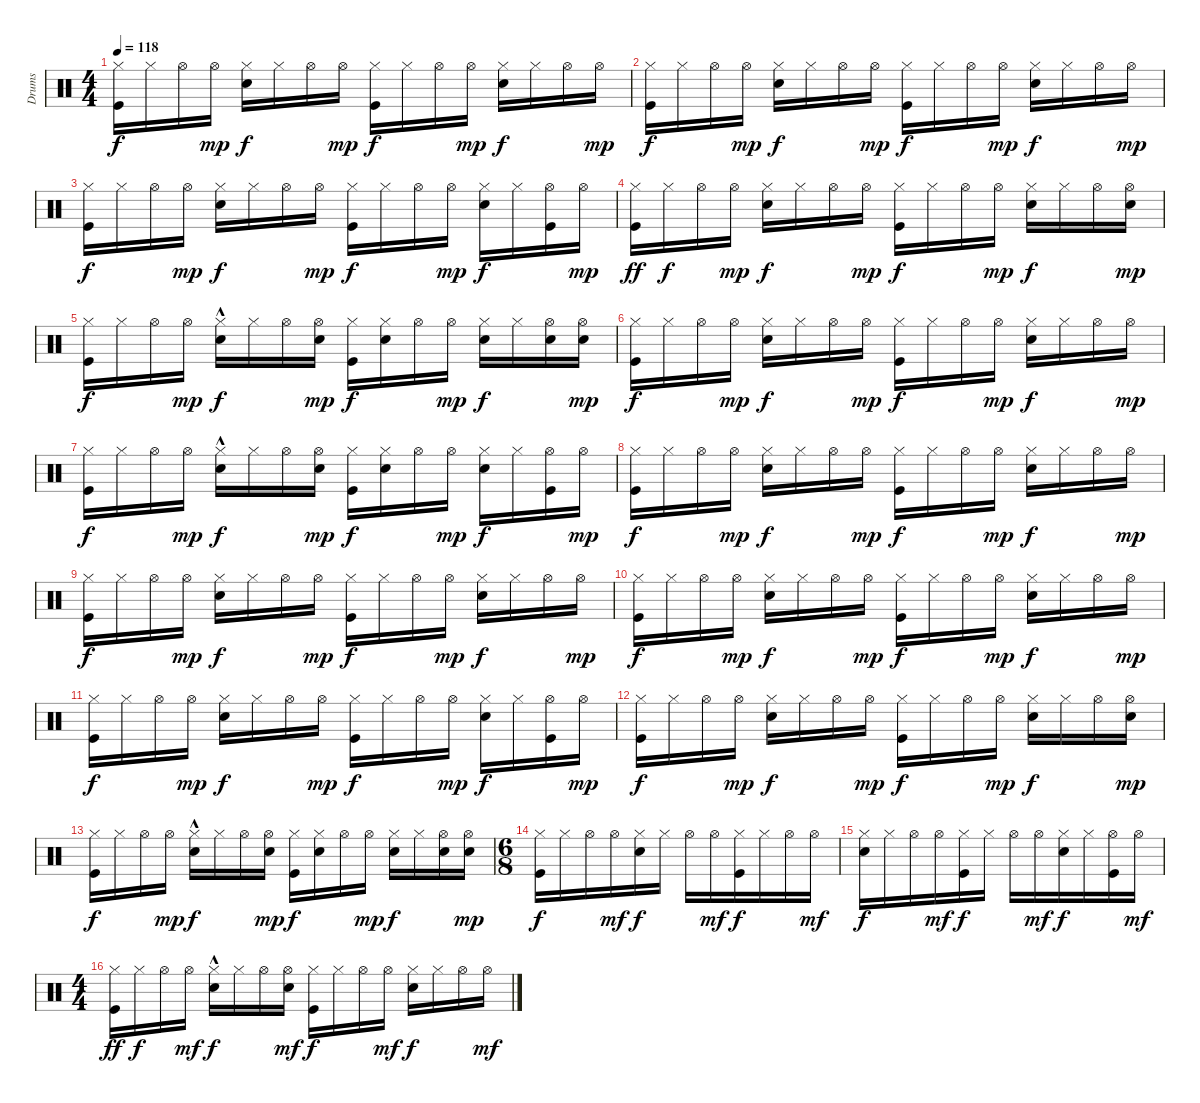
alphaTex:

\track ("Drums" "Drums") {instrument percussion}
\staff {score}
\articulation defaults
\ts (4 4)
\tempo 118
\clef neutral
\ks c
("Hi-Hat (closed)" "Kick (hit)").16{dy f} "Hi-Hat (closed)".16 "Hi-Hat (open)".16 "Hi-Hat (open)".16{dy mp} ("Hi-Hat (closed)" "Electric Snare (hit)").16{dy f} "Hi-Hat (closed)".16 "Hi-Hat (open)".16 "Hi-Hat (open)".16{dy mp} ("Kick (hit)" "Hi-Hat (closed)").16{dy f} "Hi-Hat (closed)".16 "Hi-Hat (open)".16 "Hi-Hat (open)".16{dy mp} ("Hi-Hat (closed)" "Electric Snare (hit)").16{dy f} "Hi-Hat (closed)".16 "Hi-Hat (open)".16 "Hi-Hat (open)".16{dy mp} |
("Hi-Hat (closed)" "Kick (hit)").16{dy f} "Hi-Hat (closed)".16 "Hi-Hat (open)".16 "Hi-Hat (open)".16{dy mp} ("Hi-Hat (closed)" "Electric Snare (hit)").16{dy f} "Hi-Hat (closed)".16 "Hi-Hat (open)".16 "Hi-Hat (open)".16{dy mp} ("Kick (hit)" "Hi-Hat (closed)").16{dy f} "Hi-Hat (closed)".16 "Hi-Hat (open)".16 "Hi-Hat (open)".16{dy mp} ("Hi-Hat (closed)" "Electric Snare (hit)").16{dy f} "Hi-Hat (closed)".16 "Hi-Hat (open)".16 "Hi-Hat (open)".16{dy mp} |
("Hi-Hat (closed)" "Kick (hit)").16{dy f} "Hi-Hat (closed)".16 "Hi-Hat (open)".16 "Hi-Hat (open)".16{dy mp} ("Electric Snare (hit)" "Hi-Hat (closed)").16{dy f} "Hi-Hat (closed)".16 "Hi-Hat (open)".16 "Hi-Hat (open)".16{dy mp} ("Kick (hit)" "Hi-Hat (closed)").16{dy f} "Hi-Hat (closed)".16 "Hi-Hat (open)".16 "Hi-Hat (open)".16{dy mp} ("Hi-Hat (closed)" "Electric Snare (hit)").16{dy f} "Hi-Hat (closed)".16 ("Kick (hit)" "Hi-Hat (open)").16 "Hi-Hat (open)".16{dy mp} |
("Hi-Hat (closed)" "Kick (hit)").16{dy ff} "Hi-Hat (closed)".16{dy f} "Hi-Hat (open)".16 "Hi-Hat (open)".16{dy mp} ("Hi-Hat (closed)" "Electric Snare (hit)").16{dy f} "Hi-Hat (closed)".16 "Hi-Hat (open)".16 "Hi-Hat (open)".16{dy mp} ("Kick (hit)" "Hi-Hat (closed)").16{dy f} "Hi-Hat (closed)".16 "Hi-Hat (open)".16 "Hi-Hat (open)".16{dy mp} ("Hi-Hat (closed)" "Electric Snare (hit)").16{dy f} "Hi-Hat (closed)".16 "Hi-Hat (open)".16 ("Electric Snare (hit)" "Hi-Hat (open)").16{dy mp} |
("Hi-Hat (closed)" "Kick (hit)").16{dy f} "Hi-Hat (closed)".16 "Hi-Hat (open)".16 "Hi-Hat (open)".16{dy mp} ("Hi-Hat (closed)" "Electric Snare (hit)"{hac}).16{dy f} "Hi-Hat (closed)".16 "Hi-Hat (open)".16 ("Electric Snare (hit)" "Hi-Hat (open)").16{dy mp} ("Kick (hit)" "Hi-Hat (closed)").16{dy f} ("Electric Snare (hit)" "Hi-Hat (closed)").16 "Hi-Hat (open)".16 "Hi-Hat (open)".16{dy mp} ("Hi-Hat (closed)" "Electric Snare (hit)").16{dy f} "Hi-Hat (closed)".16 ("Electric Snare (hit)" "Hi-Hat (open)").16 ("Electric Snare (hit)" "Hi-Hat (open)").16{dy mp} |
("Hi-Hat (closed)" "Kick (hit)").16{dy f} "Hi-Hat (closed)".16 "Hi-Hat (open)".16 "Hi-Hat (open)".16{dy mp} ("Hi-Hat (closed)" "Electric Snare (hit)").16{dy f} "Hi-Hat (closed)".16 "Hi-Hat (open)".16 "Hi-Hat (open)".16{dy mp} ("Kick (hit)" "Hi-Hat (closed)").16{dy f} "Hi-Hat (closed)".16 "Hi-Hat (open)".16 "Hi-Hat (open)".16{dy mp} ("Hi-Hat (closed)" "Electric Snare (hit)").16{dy f} "Hi-Hat (closed)".16 "Hi-Hat (open)".16 "Hi-Hat (open)".16{dy mp} |
("Hi-Hat (closed)" "Kick (hit)").16{dy f} "Hi-Hat (closed)".16 "Hi-Hat (open)".16 "Hi-Hat (open)".16{dy mp} ("Hi-Hat (closed)" "Electric Snare (hit)"{hac}).16{dy f} "Hi-Hat (closed)".16 "Hi-Hat (open)".16 ("Electric Snare (hit)" "Hi-Hat (open)").16{dy mp} ("Kick (hit)" "Hi-Hat (closed)").16{dy f} ("Electric Snare (hit)" "Hi-Hat (closed)").16 "Hi-Hat (open)".16 "Hi-Hat (open)".16{dy mp} ("Hi-Hat (closed)" "Electric Snare (hit)").16{dy f} "Hi-Hat (closed)".16 ("Kick (hit)" "Hi-Hat (open)").16 "Hi-Hat (open)".16{dy mp} |
("Hi-Hat (closed)" "Kick (hit)").16{dy f} "Hi-Hat (closed)".16 "Hi-Hat (open)".16 "Hi-Hat (open)".16{dy mp} ("Hi-Hat (closed)" "Electric Snare (hit)").16{dy f} "Hi-Hat (closed)".16 "Hi-Hat (open)".16 "Hi-Hat (open)".16{dy mp} ("Kick (hit)" "Hi-Hat (closed)").16{dy f} "Hi-Hat (closed)".16 "Hi-Hat (open)".16 "Hi-Hat (open)".16{dy mp} ("Hi-Hat (closed)" "Electric Snare (hit)").16{dy f} "Hi-Hat (closed)".16 "Hi-Hat (open)".16 "Hi-Hat (open)".16{dy mp} |
("Hi-Hat (closed)" "Kick (hit)").16{dy f} "Hi-Hat (closed)".16 "Hi-Hat (open)".16 "Hi-Hat (open)".16{dy mp} ("Hi-Hat (closed)" "Electric Snare (hit)").16{dy f} "Hi-Hat (closed)".16 "Hi-Hat (open)".16 "Hi-Hat (open)".16{dy mp} ("Kick (hit)" "Hi-Hat (closed)").16{dy f} "Hi-Hat (closed)".16 "Hi-Hat (open)".16 "Hi-Hat (open)".16{dy mp} ("Hi-Hat (closed)" "Electric Snare (hit)").16{dy f} "Hi-Hat (closed)".16 "Hi-Hat (open)".16 "Hi-Hat (open)".16{dy mp} |
("Hi-Hat (closed)" "Kick (hit)").16{dy f} "Hi-Hat (closed)".16 "Hi-Hat (open)".16 "Hi-Hat (open)".16{dy mp} ("Hi-Hat (closed)" "Electric Snare (hit)").16{dy f} "Hi-Hat (closed)".16 "Hi-Hat (open)".16 "Hi-Hat (open)".16{dy mp} ("Kick (hit)" "Hi-Hat (closed)").16{dy f} "Hi-Hat (closed)".16 "Hi-Hat (open)".16 "Hi-Hat (open)".16{dy mp} ("Hi-Hat (closed)" "Electric Snare (hit)").16{dy f} "Hi-Hat (closed)".16 "Hi-Hat (open)".16 "Hi-Hat (open)".16{dy mp} |
("Hi-Hat (closed)" "Kick (hit)").16{dy f} "Hi-Hat (closed)".16 "Hi-Hat (open)".16 "Hi-Hat (open)".16{dy mp} ("Electric Snare (hit)" "Hi-Hat (closed)").16{dy f} "Hi-Hat (closed)".16 "Hi-Hat (open)".16 "Hi-Hat (open)".16{dy mp} ("Kick (hit)" "Hi-Hat (closed)").16{dy f} "Hi-Hat (closed)".16 "Hi-Hat (open)".16 "Hi-Hat (open)".16{dy mp} ("Hi-Hat (closed)" "Electric Snare (hit)").16{dy f} "Hi-Hat (closed)".16 ("Kick (hit)" "Hi-Hat (open)").16 "Hi-Hat (open)".16{dy mp} |
("Hi-Hat (closed)" "Kick (hit)").16{dy f} "Hi-Hat (closed)".16 "Hi-Hat (open)".16 "Hi-Hat (open)".16{dy mp} ("Hi-Hat (closed)" "Electric Snare (hit)").16{dy f} "Hi-Hat (closed)".16 "Hi-Hat (open)".16 "Hi-Hat (open)".16{dy mp} ("Kick (hit)" "Hi-Hat (closed)").16{dy f} "Hi-Hat (closed)".16 "Hi-Hat (open)".16 "Hi-Hat (open)".16{dy mp} ("Hi-Hat (closed)" "Electric Snare (hit)").16{dy f} "Hi-Hat (closed)".16 "Hi-Hat (open)".16 ("Electric Snare (hit)" "Hi-Hat (open)").16{dy mp} |
("Hi-Hat (closed)" "Kick (hit)").16{dy f} "Hi-Hat (closed)".16 "Hi-Hat (open)".16 "Hi-Hat (open)".16{dy mp} ("Hi-Hat (closed)" "Electric Snare (hit)"{hac}).16{dy f} "Hi-Hat (closed)".16 "Hi-Hat (open)".16 ("Electric Snare (hit)" "Hi-Hat (open)").16{dy mp} ("Kick (hit)" "Hi-Hat (closed)").16{dy f} ("Electric Snare (hit)" "Hi-Hat (closed)").16 "Hi-Hat (open)".16 "Hi-Hat (open)".16{dy mp} ("Hi-Hat (closed)" "Electric Snare (hit)").16{dy f} "Hi-Hat (closed)".16 ("Electric Snare (hit)" "Hi-Hat (open)").16 ("Electric Snare (hit)" "Hi-Hat (open)").16{dy mp} |
\ts (6 8)
("Hi-Hat (closed)" "Kick (hit)").16{dy f} "Hi-Hat (closed)".16 "Hi-Hat (open)".16 "Hi-Hat (open)".16{dy mf} ("Electric Snare (hit)" "Hi-Hat (closed)").16{dy f} "Hi-Hat (closed)".16 "Hi-Hat (open)".16 "Hi-Hat (open)".16{dy mf} ("Kick (hit)" "Hi-Hat (closed)").16{dy f} "Hi-Hat (closed)".16 "Hi-Hat (open)".16 "Hi-Hat (open)".16{dy mf} |
("Electric Snare (hit)" "Hi-Hat (closed)").16{dy f} "Hi-Hat (closed)".16 "Hi-Hat (open)".16 "Hi-Hat (open)".16{dy mf} ("Kick (hit)" "Hi-Hat (closed)").16{dy f} "Hi-Hat (closed)".16 "Hi-Hat (open)".16 "Hi-Hat (open)".16{dy mf} ("Electric Snare (hit)" "Hi-Hat (closed)").16{dy f} "Hi-Hat (closed)".16 ("Kick (hit)" "Hi-Hat (open)").16 "Hi-Hat (open)".16{dy mf} |
\ts (4 4)
("Kick (hit)" "Hi-Hat (closed)").16{dy ff} "Hi-Hat (closed)".16{dy f} "Hi-Hat (open)".16 "Hi-Hat (open)".16{dy mf} ("Electric Snare (hit)"{hac} "Hi-Hat (closed)").16{dy f} "Hi-Hat (closed)".16 "Hi-Hat (open)".16 ("Hi-Hat (open)" "Electric Snare (hit)").16{dy mf} ("Hi-Hat (closed)" "Kick (hit)").16{dy f} "Hi-Hat (closed)".16 "Hi-Hat (open)".16 "Hi-Hat (open)".16{dy mf} ("Electric Snare (hit)" "Hi-Hat (closed)").16{dy f} "Hi-Hat (closed)".16 "Hi-Hat (open)".16 "Hi-Hat (open)".16{dy mf}
